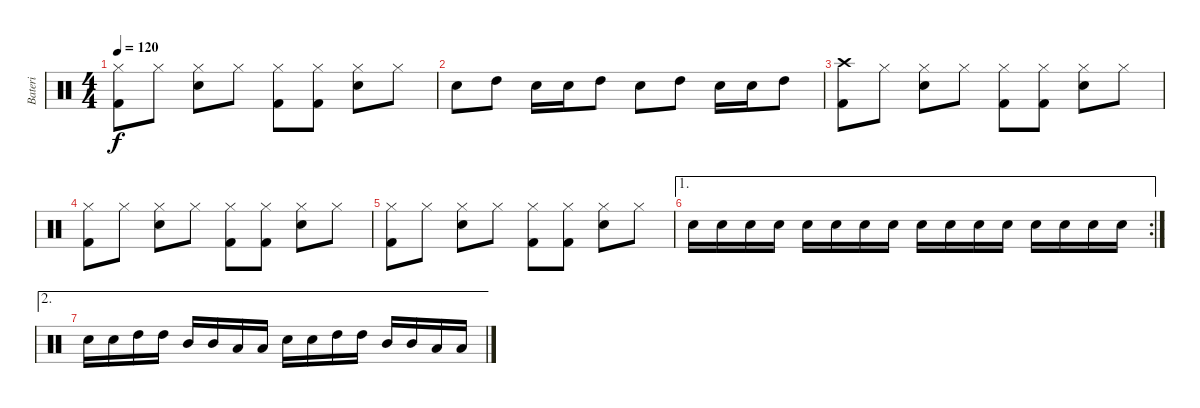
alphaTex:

\track ("Bateri" "Bateri") {instrument percussion}
\staff {score}
\articulation defaults
\ts (4 4)
\tempo 120
\clef neutral
\ks c
("Hi-Hat (closed)" "Kick (hit) 2").8{dy f} "Hi-Hat (closed)".8 ("Hi-Hat (closed)" "Electric Snare (hit)").8 "Hi-Hat (closed)".8 ("Hi-Hat (closed)" "Kick (hit) 2").8 ("Hi-Hat (closed)" "Kick (hit) 2").8 ("Hi-Hat (closed)" "Electric Snare (hit)").8 "Hi-Hat (closed)".8 |
"Electric Snare (hit)".8 "High Tom (hit)".8 "Electric Snare (hit)".16 "Electric Snare (hit)".16 "High Tom (hit)".8 "Electric Snare (hit)".8 "High Tom (hit)".8 "Electric Snare (hit)".16 "Electric Snare (hit)".16 "High Tom (hit)".8 |
("Crash high (hit)" "Kick (hit) 2").8 "Hi-Hat (closed)".8 ("Hi-Hat (closed)" "Electric Snare (hit)").8 "Hi-Hat (closed)".8 ("Hi-Hat (closed)" "Kick (hit) 2").8 ("Hi-Hat (closed)" "Kick (hit) 2").8 ("Hi-Hat (closed)" "Electric Snare (hit)").8 "Hi-Hat (closed)".8 |
("Hi-Hat (closed)" "Kick (hit) 2").8 "Hi-Hat (closed)".8 ("Hi-Hat (closed)" "Electric Snare (hit)").8 "Hi-Hat (closed)".8 ("Hi-Hat (closed)" "Kick (hit) 2").8 ("Hi-Hat (closed)" "Kick (hit) 2").8 ("Hi-Hat (closed)" "Electric Snare (hit)").8 "Hi-Hat (closed)".8 |
("Hi-Hat (closed)" "Kick (hit) 2").8 "Hi-Hat (closed)".8 ("Hi-Hat (closed)" "Electric Snare (hit)").8 "Hi-Hat (closed)".8 ("Hi-Hat (closed)" "Kick (hit) 2").8 ("Hi-Hat (closed)" "Kick (hit) 2").8 ("Hi-Hat (closed)" "Electric Snare (hit)").8 "Hi-Hat (closed)".8 |
\ae 1
\rc 2 "Electric Snare (hit)".16 "Electric Snare (hit)".16 "Electric Snare (hit)".16 "Electric Snare (hit)".16 "Electric Snare (hit)".16 "Electric Snare (hit)".16 "Electric Snare (hit)".16 "Electric Snare (hit)".16 "Electric Snare (hit)".16 "Electric Snare (hit)".16 "Electric Snare (hit)".16 "Electric Snare (hit)".16 "Electric Snare (hit)".16 "Electric Snare (hit)".16 "Electric Snare (hit)".16 "Electric Snare (hit)".16
|
\ae 2 "Electric Snare (hit)".16 "Electric Snare (hit)".16 "High Tom (hit)".16 "High Tom (hit)".16 "Mid Tom (hit)".16 "Mid Tom (hit)".16 "Low Tom (hit)".16 "Low Tom (hit)".16 "Electric Snare (hit)".16 "Electric Snare (hit)".16 "High Tom (hit)".16 "High Tom (hit)".16 "Mid Tom (hit)".16 "Mid Tom (hit)".16 "Low Tom (hit)".16 "Low Tom (hit)".16
